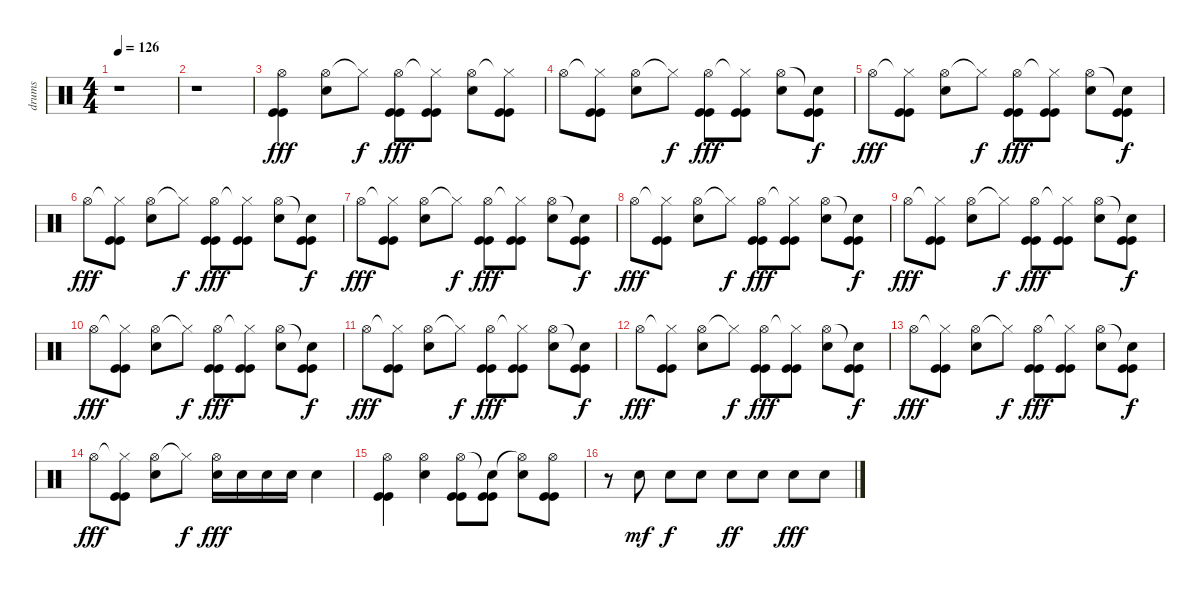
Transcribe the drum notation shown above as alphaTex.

\track ("drums" "drums") {instrument percussion}
\staff {score}
\articulation defaults
\ts (4 4)
\tempo 126
\clef neutral
\ks c
r.1{dy fff} |
r.1 |
("Hi-Hat (open)" "Kick (hit)" "Kick (hit)").4 ("Hi-Hat (open)" "Electric Snare (hit)").8 "Hi-Hat (closed)"{t}.8{dy f} ("Hi-Hat (open)" "Kick (hit)" "Kick (hit)").8{dy fff} ("Hi-Hat (closed)"{t} "Kick (hit)" "Kick (hit)").8 ("Hi-Hat (open)" "Electric Snare (hit)").8 ("Hi-Hat (closed)"{t} "Kick (hit)" "Kick (hit)").8 |
"Hi-Hat (open)".8 ("Hi-Hat (closed)"{t} "Kick (hit)" "Kick (hit)").8 ("Hi-Hat (open)" "Electric Snare (hit)").8 "Hi-Hat (closed)"{t}.8{dy f} ("Hi-Hat (open)" "Kick (hit)" "Kick (hit)").8{dy fff} ("Hi-Hat (closed)"{t} "Kick (hit)" "Kick (hit)").8 ("Hi-Hat (open)" "Electric Snare (hit)").8 ("Snare (hit)"{t} "Kick (hit)" "Kick (hit)").8{dy f} |
"Hi-Hat (open)".8{dy fff} ("Hi-Hat (closed)"{t} "Kick (hit)" "Kick (hit)").8 ("Hi-Hat (open)" "Electric Snare (hit)").8 "Hi-Hat (closed)"{t}.8{dy f} ("Hi-Hat (open)" "Kick (hit)" "Kick (hit)").8{dy fff} ("Hi-Hat (closed)"{t} "Kick (hit)" "Kick (hit)").8 ("Hi-Hat (open)" "Electric Snare (hit)").8 ("Snare (hit)"{t} "Kick (hit)" "Kick (hit)").8{dy f} |
"Hi-Hat (open)".8{dy fff} ("Hi-Hat (closed)"{t} "Kick (hit)" "Kick (hit)").8 ("Hi-Hat (open)" "Electric Snare (hit)").8 "Hi-Hat (closed)"{t}.8{dy f} ("Hi-Hat (open)" "Kick (hit)" "Kick (hit)").8{dy fff} ("Hi-Hat (closed)"{t} "Kick (hit)" "Kick (hit)").8 ("Hi-Hat (open)" "Electric Snare (hit)").8 ("Snare (hit)"{t} "Kick (hit)" "Kick (hit)").8{dy f} |
"Hi-Hat (open)".8{dy fff} ("Hi-Hat (closed)"{t} "Kick (hit)" "Kick (hit)").8 ("Hi-Hat (open)" "Electric Snare (hit)").8 "Hi-Hat (closed)"{t}.8{dy f} ("Hi-Hat (open)" "Kick (hit)" "Kick (hit)").8{dy fff} ("Hi-Hat (closed)"{t} "Kick (hit)" "Kick (hit)").8 ("Hi-Hat (open)" "Electric Snare (hit)").8 ("Snare (hit)"{t} "Kick (hit)" "Kick (hit)").8{dy f} |
"Hi-Hat (open)".8{dy fff} ("Hi-Hat (closed)"{t} "Kick (hit)" "Kick (hit)").8 ("Hi-Hat (open)" "Electric Snare (hit)").8 "Hi-Hat (closed)"{t}.8{dy f} ("Hi-Hat (open)" "Kick (hit)" "Kick (hit)").8{dy fff} ("Hi-Hat (closed)"{t} "Kick (hit)" "Kick (hit)").8 ("Hi-Hat (open)" "Electric Snare (hit)").8 ("Snare (hit)"{t} "Kick (hit)" "Kick (hit)").8{dy f} |
"Hi-Hat (open)".8{dy fff} ("Hi-Hat (closed)"{t} "Kick (hit)" "Kick (hit)").8 ("Hi-Hat (open)" "Electric Snare (hit)").8 "Hi-Hat (closed)"{t}.8{dy f} ("Hi-Hat (open)" "Kick (hit)" "Kick (hit)").8{dy fff} ("Hi-Hat (closed)"{t} "Kick (hit)" "Kick (hit)").8 ("Hi-Hat (open)" "Electric Snare (hit)").8 ("Snare (hit)"{t} "Kick (hit)" "Kick (hit)").8{dy f} |
"Hi-Hat (open)".8{dy fff} ("Hi-Hat (closed)"{t} "Kick (hit)" "Kick (hit)").8 ("Hi-Hat (open)" "Electric Snare (hit)").8 "Hi-Hat (closed)"{t}.8{dy f} ("Hi-Hat (open)" "Kick (hit)" "Kick (hit)").8{dy fff} ("Hi-Hat (closed)"{t} "Kick (hit)" "Kick (hit)").8 ("Hi-Hat (open)" "Electric Snare (hit)").8 ("Snare (hit)"{t} "Kick (hit)" "Kick (hit)").8{dy f} |
"Hi-Hat (open)".8{dy fff} ("Hi-Hat (closed)"{t} "Kick (hit)" "Kick (hit)").8 ("Hi-Hat (open)" "Electric Snare (hit)").8 "Hi-Hat (closed)"{t}.8{dy f} ("Hi-Hat (open)" "Kick (hit)" "Kick (hit)").8{dy fff} ("Hi-Hat (closed)"{t} "Kick (hit)" "Kick (hit)").8 ("Hi-Hat (open)" "Electric Snare (hit)").8 ("Snare (hit)"{t} "Kick (hit)" "Kick (hit)").8{dy f} |
"Hi-Hat (open)".8{dy fff} ("Hi-Hat (closed)"{t} "Kick (hit)" "Kick (hit)").8 ("Hi-Hat (open)" "Electric Snare (hit)").8 "Hi-Hat (closed)"{t}.8{dy f} ("Hi-Hat (open)" "Kick (hit)" "Kick (hit)").8{dy fff} ("Hi-Hat (closed)"{t} "Kick (hit)" "Kick (hit)").8 ("Hi-Hat (open)" "Electric Snare (hit)").8 ("Snare (hit)"{t} "Kick (hit)" "Kick (hit)").8{dy f} |
"Hi-Hat (open)".8{dy fff} ("Hi-Hat (closed)"{t} "Kick (hit)" "Kick (hit)").8 ("Hi-Hat (open)" "Electric Snare (hit)").8 "Hi-Hat (closed)"{t}.8{dy f} ("Hi-Hat (open)" "Kick (hit)" "Kick (hit)").8{dy fff} ("Hi-Hat (closed)"{t} "Kick (hit)" "Kick (hit)").8 ("Hi-Hat (open)" "Electric Snare (hit)").8 ("Snare (hit)"{t} "Kick (hit)" "Kick (hit)").8{dy f} |
"Hi-Hat (open)".8{dy fff} ("Hi-Hat (closed)"{t} "Kick (hit)" "Kick (hit)").8 ("Hi-Hat (open)" "Electric Snare (hit)").8 "Hi-Hat (closed)"{t}.8{dy f} ("Hi-Hat (open)" "Electric Snare (hit)").16{dy fff} "Electric Snare (hit)".16 "Electric Snare (hit)".16 "Electric Snare (hit)".16 "Electric Snare (hit)".4 |
("Hi-Hat (open)" "Kick (hit)" "Kick (hit)").4 ("Hi-Hat (open)" "Electric Snare (hit)").4 ("Hi-Hat (open)" "Kick (hit)" "Kick (hit)").8 ("Snare (hit)"{t} "Kick (hit)" "Kick (hit)").8 ("Hi-Hat (open)"{t} "Electric Snare (hit)").8 ("Hi-Hat (open)" "Kick (hit)" "Kick (hit)").8 |
r.8 "Electric Snare (hit)".8{dy mf} "Electric Snare (hit)".8{dy f} "Electric Snare (hit)".8 "Electric Snare (hit)".8{dy ff} "Electric Snare (hit)".8 "Electric Snare (hit)".8{dy fff} "Electric Snare (hit)".8
